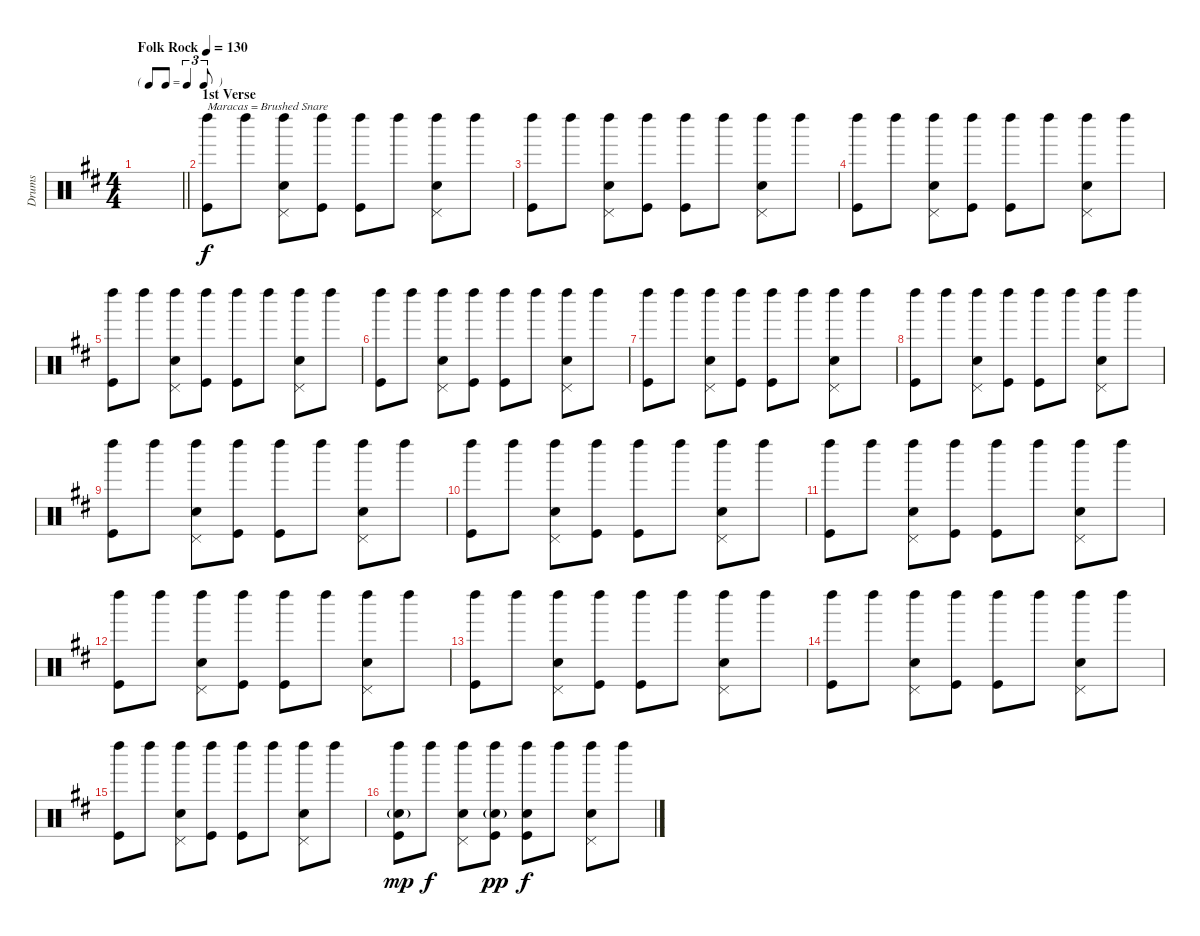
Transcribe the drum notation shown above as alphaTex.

\track ("Drums" "Drums") {instrument percussion}
\staff {score}
\articulation defaults
\ts (4 4)
\tf triplet8th
\tempo (130 "Folk Rock")
\clef neutral
\barLineRight lightlight
\ks d
|
\section ("" "1st Verse")
("Left Maraca (hit)" "Kick (hit)").8{txt "Maracas = Brushed Snare"} "Left Maraca (hit)".8 ("Left Maraca (hit)" "Pedal Hi-Hat (hit)" "Snare (hit) 2").8 ("Left Maraca (hit)" "Kick (hit)").8 ("Left Maraca (hit)" "Kick (hit)").8 "Left Maraca (hit)".8 ("Left Maraca (hit)" "Pedal Hi-Hat (hit)" "Snare (hit) 2").8 "Left Maraca (hit)".8 |
("Left Maraca (hit)" "Kick (hit)").8 "Left Maraca (hit)".8 ("Left Maraca (hit)" "Pedal Hi-Hat (hit)" "Snare (hit) 2").8 ("Left Maraca (hit)" "Kick (hit)").8 ("Left Maraca (hit)" "Kick (hit)").8 "Left Maraca (hit)".8 ("Left Maraca (hit)" "Pedal Hi-Hat (hit)" "Snare (hit) 2").8 "Left Maraca (hit)".8 |
("Left Maraca (hit)" "Kick (hit)").8 "Left Maraca (hit)".8 ("Left Maraca (hit)" "Pedal Hi-Hat (hit)" "Snare (hit) 2").8 ("Left Maraca (hit)" "Kick (hit)").8 ("Left Maraca (hit)" "Kick (hit)").8 "Left Maraca (hit)".8 ("Left Maraca (hit)" "Pedal Hi-Hat (hit)" "Snare (hit) 2").8 "Left Maraca (hit)".8 |
("Left Maraca (hit)" "Kick (hit)").8 "Left Maraca (hit)".8 ("Left Maraca (hit)" "Pedal Hi-Hat (hit)" "Snare (hit) 2").8 ("Left Maraca (hit)" "Kick (hit)").8 ("Left Maraca (hit)" "Kick (hit)").8 "Left Maraca (hit)".8 ("Left Maraca (hit)" "Pedal Hi-Hat (hit)" "Snare (hit) 2").8 "Left Maraca (hit)".8 |
("Left Maraca (hit)" "Kick (hit)").8 "Left Maraca (hit)".8 ("Left Maraca (hit)" "Pedal Hi-Hat (hit)" "Snare (hit) 2").8 ("Left Maraca (hit)" "Kick (hit)").8 ("Left Maraca (hit)" "Kick (hit)").8 "Left Maraca (hit)".8 ("Left Maraca (hit)" "Pedal Hi-Hat (hit)" "Snare (hit) 2").8 "Left Maraca (hit)".8 |
("Left Maraca (hit)" "Kick (hit)").8 "Left Maraca (hit)".8 ("Left Maraca (hit)" "Pedal Hi-Hat (hit)" "Snare (hit) 2").8 ("Left Maraca (hit)" "Kick (hit)").8 ("Left Maraca (hit)" "Kick (hit)").8 "Left Maraca (hit)".8 ("Left Maraca (hit)" "Pedal Hi-Hat (hit)" "Snare (hit) 2").8 "Left Maraca (hit)".8 |
("Left Maraca (hit)" "Kick (hit)").8 "Left Maraca (hit)".8 ("Left Maraca (hit)" "Pedal Hi-Hat (hit)" "Snare (hit) 2").8 ("Left Maraca (hit)" "Kick (hit)").8 ("Left Maraca (hit)" "Kick (hit)").8 "Left Maraca (hit)".8 ("Left Maraca (hit)" "Pedal Hi-Hat (hit)" "Snare (hit) 2").8 "Left Maraca (hit)".8 |
("Left Maraca (hit)" "Kick (hit)").8 "Left Maraca (hit)".8 ("Left Maraca (hit)" "Pedal Hi-Hat (hit)" "Snare (hit) 2").8 ("Left Maraca (hit)" "Kick (hit)").8 ("Left Maraca (hit)" "Kick (hit)").8 "Left Maraca (hit)".8 ("Left Maraca (hit)" "Pedal Hi-Hat (hit)" "Snare (hit) 2").8 "Left Maraca (hit)".8 |
("Left Maraca (hit)" "Kick (hit)").8 "Left Maraca (hit)".8 ("Left Maraca (hit)" "Pedal Hi-Hat (hit)" "Snare (hit) 2").8 ("Left Maraca (hit)" "Kick (hit)").8 ("Left Maraca (hit)" "Kick (hit)").8 "Left Maraca (hit)".8 ("Left Maraca (hit)" "Pedal Hi-Hat (hit)" "Snare (hit) 2").8 "Left Maraca (hit)".8 |
("Left Maraca (hit)" "Kick (hit)").8 "Left Maraca (hit)".8 ("Left Maraca (hit)" "Pedal Hi-Hat (hit)" "Snare (hit) 2").8 ("Left Maraca (hit)" "Kick (hit)").8 ("Left Maraca (hit)" "Kick (hit)").8 "Left Maraca (hit)".8 ("Left Maraca (hit)" "Pedal Hi-Hat (hit)" "Snare (hit) 2").8 "Left Maraca (hit)".8 |
("Left Maraca (hit)" "Kick (hit)").8 "Left Maraca (hit)".8 ("Left Maraca (hit)" "Pedal Hi-Hat (hit)" "Snare (hit) 2").8 ("Left Maraca (hit)" "Kick (hit)").8 ("Left Maraca (hit)" "Kick (hit)").8 "Left Maraca (hit)".8 ("Left Maraca (hit)" "Pedal Hi-Hat (hit)" "Snare (hit) 2").8 "Left Maraca (hit)".8 |
("Left Maraca (hit)" "Kick (hit)").8 "Left Maraca (hit)".8 ("Left Maraca (hit)" "Pedal Hi-Hat (hit)" "Snare (hit) 2").8 ("Left Maraca (hit)" "Kick (hit)").8 ("Left Maraca (hit)" "Kick (hit)").8 "Left Maraca (hit)".8 ("Left Maraca (hit)" "Pedal Hi-Hat (hit)" "Snare (hit) 2").8 "Left Maraca (hit)".8 |
("Left Maraca (hit)" "Kick (hit)").8 "Left Maraca (hit)".8 ("Left Maraca (hit)" "Pedal Hi-Hat (hit)" "Snare (hit) 2").8 ("Left Maraca (hit)" "Kick (hit)").8 ("Left Maraca (hit)" "Kick (hit)").8 "Left Maraca (hit)".8 ("Left Maraca (hit)" "Pedal Hi-Hat (hit)" "Snare (hit) 2").8 "Left Maraca (hit)".8 |
("Left Maraca (hit)" "Kick (hit)").8 "Left Maraca (hit)".8 ("Left Maraca (hit)" "Pedal Hi-Hat (hit)" "Snare (hit) 2").8 ("Left Maraca (hit)" "Kick (hit)").8 ("Left Maraca (hit)" "Kick (hit)").8 "Left Maraca (hit)".8 ("Left Maraca (hit)" "Pedal Hi-Hat (hit)" "Snare (hit) 2").8 "Left Maraca (hit)".8 |
("Left Maraca (hit)" "Snare (hit) 2"{g} "Kick (hit)").8{dy mp} "Left Maraca (hit)".8{dy f} ("Left Maraca (hit)" "Pedal Hi-Hat (hit)" "Snare (hit) 2").8 ("Left Maraca (hit)" "Snare (hit) 2"{g} "Kick (hit)").8{dy pp} ("Left Maraca (hit)" "Snare (hit) 2" "Kick (hit)").8{dy f} "Left Maraca (hit)".8 ("Left Maraca (hit)" "Pedal Hi-Hat (hit)" "Snare (hit) 2").8 "Left Maraca (hit)".8
